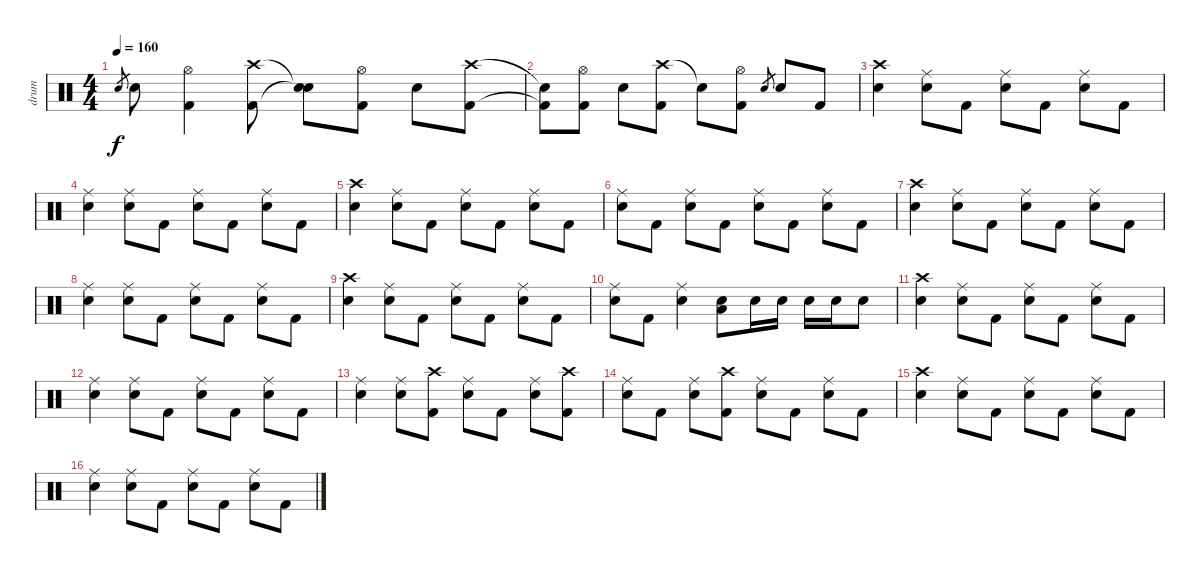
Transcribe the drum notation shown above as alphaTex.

\track ("drum" "drum") {instrument percussion}
\staff {score}
\articulation defaults
\ts (4 4)
\tempo 160
\clef neutral
\ks c "Electric Snare (hit)".8{gr dy f} "Electric Snare (hit)".8
("Hi-Hat (open)" "Kick (hit) 2").4 ("Crash high (hit)" "Kick (hit) 2").8 ("Snare (hit)"{t} "Snare (hit)"{t}).8 ("Hi-Hat (open)" "Kick (hit) 2").8 "Electric Snare (hit)".8 ("Crash high (hit)" "Kick (hit) 2").8 |
("Snare (hit)"{t} "Kick (hit) 2"{t}).8 ("Hi-Hat (open)" "Kick (hit) 2").8 "Electric Snare (hit)".8 ("Crash high (hit)" "Kick (hit) 2").8 "Snare (hit)"{t}.8 ("Hi-Hat (open)" "Kick (hit) 2").8 "Electric Snare (hit)".8{gr} "Electric Snare (hit)".8 "Kick (hit) 2".8 |
("Crash high (hit)" "Electric Snare (hit)").4 ("Ride (middle)" "Electric Snare (hit)").8 "Kick (hit) 2".8 ("Ride (middle)" "Electric Snare (hit)").8 "Kick (hit) 2".8 ("Ride (middle)" "Electric Snare (hit)").8 "Kick (hit) 2".8 |
("Ride (middle)" "Electric Snare (hit)").4 ("Ride (middle)" "Electric Snare (hit)").8 "Kick (hit) 2".8 ("Ride (middle)" "Electric Snare (hit)").8 "Kick (hit) 2".8 ("Ride (middle)" "Electric Snare (hit)").8 "Kick (hit) 2".8 |
("Crash high (hit)" "Electric Snare (hit)").4 ("Ride (middle)" "Electric Snare (hit)").8 "Kick (hit) 2".8 ("Ride (middle)" "Electric Snare (hit)").8 "Kick (hit) 2".8 ("Ride (middle)" "Electric Snare (hit)").8 "Kick (hit) 2".8 |
("Ride (middle)" "Electric Snare (hit)").8 "Kick (hit) 2".8 ("Ride (middle)" "Electric Snare (hit)").8 "Kick (hit) 2".8 ("Ride (middle)" "Electric Snare (hit)").8 "Kick (hit) 2".8 ("Ride (middle)" "Electric Snare (hit)").8 "Kick (hit) 2".8 |
("Crash high (hit)" "Electric Snare (hit)").4 ("Ride (middle)" "Electric Snare (hit)").8 "Kick (hit) 2".8 ("Ride (middle)" "Electric Snare (hit)").8 "Kick (hit) 2".8 ("Ride (middle)" "Electric Snare (hit)").8 "Kick (hit) 2".8 |
("Ride (middle)" "Electric Snare (hit)").4 ("Ride (middle)" "Electric Snare (hit)").8 "Kick (hit) 2".8 ("Ride (middle)" "Electric Snare (hit)").8 "Kick (hit) 2".8 ("Ride (middle)" "Electric Snare (hit)").8 "Kick (hit) 2".8 |
("Crash high (hit)" "Electric Snare (hit)").4 ("Ride (middle)" "Electric Snare (hit)").8 "Kick (hit) 2".8 ("Ride (middle)" "Electric Snare (hit)").8 "Kick (hit) 2".8 ("Ride (middle)" "Electric Snare (hit)").8 "Kick (hit) 2".8 |
("Ride (middle)" "Electric Snare (hit)").8 "Kick (hit) 2".8 ("Ride (middle)" "Electric Snare (hit)").4 ("Electric Snare (hit)" "Low Tom (hit)").8 "Electric Snare (hit)".16 "Electric Snare (hit)".16 "Electric Snare (hit)".16 "Electric Snare (hit)".16 "Electric Snare (hit)".8 |
("Crash high (hit)" "Electric Snare (hit)").4 ("Ride (middle)" "Electric Snare (hit)").8 "Kick (hit) 2".8 ("Ride (middle)" "Electric Snare (hit)").8 "Kick (hit) 2".8 ("Ride (middle)" "Electric Snare (hit)").8 "Kick (hit) 2".8 |
("Ride (middle)" "Electric Snare (hit)").4 ("Ride (middle)" "Electric Snare (hit)").8 "Kick (hit) 2".8 ("Ride (middle)" "Electric Snare (hit)").8 "Kick (hit) 2".8 ("Ride (middle)" "Electric Snare (hit)").8 "Kick (hit) 2".8 |
("Ride (middle)" "Electric Snare (hit)").4 ("Ride (middle)" "Electric Snare (hit)").8 ("Crash high (hit)" "Kick (hit) 2").8 ("Ride (middle)" "Electric Snare (hit)").8 "Kick (hit) 2".8 ("Ride (middle)" "Electric Snare (hit)").8 ("Crash high (hit)" "Kick (hit) 2").8 |
("Ride (middle)" "Electric Snare (hit)").8 "Kick (hit) 2".8 ("Ride (middle)" "Electric Snare (hit)").8 ("Crash high (hit)" "Kick (hit) 2").8 ("Ride (middle)" "Electric Snare (hit)").8 "Kick (hit) 2".8 ("Ride (middle)" "Electric Snare (hit)").8 "Kick (hit) 2".8 |
("Crash high (hit)" "Electric Snare (hit)").4 ("Ride (middle)" "Electric Snare (hit)").8 "Kick (hit) 2".8 ("Ride (middle)" "Electric Snare (hit)").8 "Kick (hit) 2".8 ("Ride (middle)" "Electric Snare (hit)").8 "Kick (hit) 2".8 |
("Ride (middle)" "Electric Snare (hit)").4 ("Ride (middle)" "Electric Snare (hit)").8 "Kick (hit) 2".8 ("Ride (middle)" "Electric Snare (hit)").8 "Kick (hit) 2".8 ("Ride (middle)" "Electric Snare (hit)").8 "Kick (hit) 2".8
